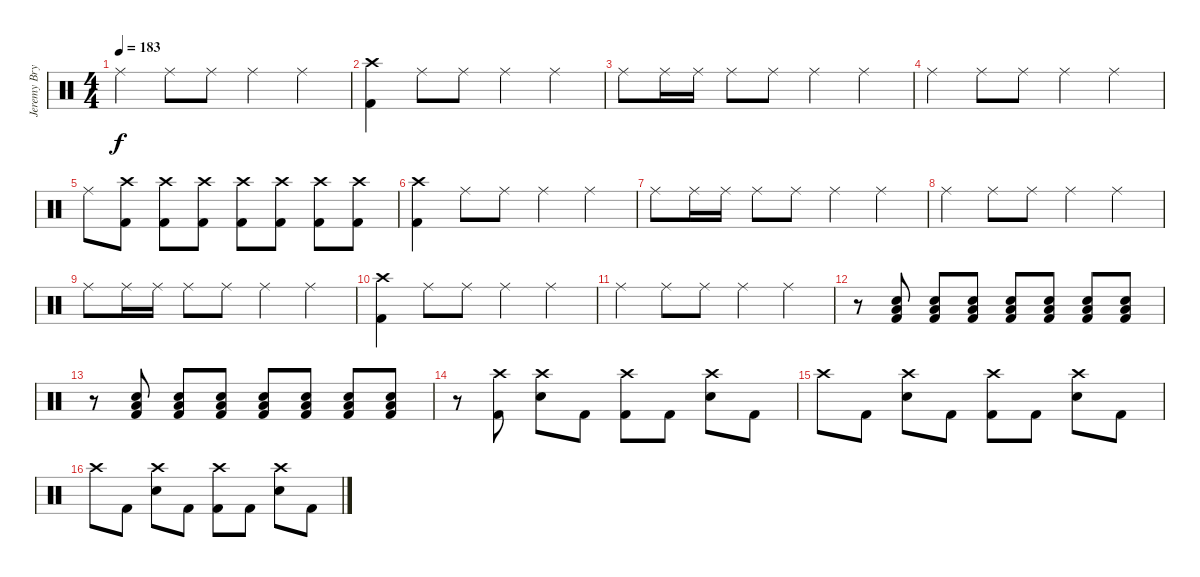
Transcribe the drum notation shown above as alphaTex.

\track ("Jeremy Bryan - Drums" "Jeremy Bry") {instrument percussion}
\staff {score}
\articulation defaults
\ts (4 4)
\tempo 183
\clef neutral
\ks c "Ride (middle)".4{dy f} "Ride (middle)".8 "Ride (middle)".8 "Ride (middle)".4 "Ride (middle)".4
|
("Crash high (hit)" "Kick (hit) 2").4 "Ride (middle)".8 "Ride (middle)".8 "Ride (middle)".4 "Ride (middle)".4 |
"Ride (middle)".8 "Ride (middle)".16 "Ride (middle)".16 "Ride (middle)".8 "Ride (middle)".8 "Ride (middle)".4 "Ride (middle)".4 |
"Ride (middle)".4 "Ride (middle)".8 "Ride (middle)".8 "Ride (middle)".4 "Ride (middle)".4 |
"Ride (middle)".8{volume 6} ("Crash high (hit)" "Kick (hit) 2").8{volume 13} ("Crash high (hit)" "Kick (hit) 2").8 ("Crash high (hit)" "Kick (hit) 2").8 ("Crash high (hit)" "Kick (hit) 2").8 ("Crash high (hit)" "Kick (hit) 2").8 ("Crash high (hit)" "Kick (hit) 2").8 ("Crash high (hit)" "Kick (hit) 2").8 |
("Crash high (hit)" "Kick (hit) 2").4 "Ride (middle)".8 "Ride (middle)".8 "Ride (middle)".4 "Ride (middle)".4 |
"Ride (middle)".8 "Ride (middle)".16 "Ride (middle)".16 "Ride (middle)".8 "Ride (middle)".8 "Ride (middle)".4 "Ride (middle)".4 |
"Ride (middle)".4 "Ride (middle)".8 "Ride (middle)".8 "Ride (middle)".4 "Ride (middle)".4 |
"Ride (middle)".8 "Ride (middle)".16 "Ride (middle)".16 "Ride (middle)".8 "Ride (middle)".8 "Ride (middle)".4 "Ride (middle)".4 |
("Crash high (hit)" "Kick (hit) 2").4 "Ride (middle)".8 "Ride (middle)".8 "Ride (middle)".4 "Ride (middle)".4 |
"Ride (middle)".4 "Ride (middle)".8 "Ride (middle)".8 "Ride (middle)".4 "Ride (middle)".4 |
r.8 ("Electric Snare (hit)" "Low Floor Tom (hit)" "Kick (hit) 2").8 ("Electric Snare (hit)" "Low Floor Tom (hit)" "Kick (hit) 2").8 ("Electric Snare (hit)" "Low Floor Tom (hit)" "Kick (hit) 2").8 ("Electric Snare (hit)" "Low Floor Tom (hit)" "Kick (hit) 2").8 ("Electric Snare (hit)" "Low Floor Tom (hit)" "Kick (hit) 2").8 ("Electric Snare (hit)" "Low Floor Tom (hit)" "Kick (hit) 2").8 ("Electric Snare (hit)" "Low Floor Tom (hit)" "Kick (hit) 2").8 |
r.8 ("Electric Snare (hit)" "Low Floor Tom (hit)" "Kick (hit) 2").8 ("Electric Snare (hit)" "Low Floor Tom (hit)" "Kick (hit) 2").8 ("Electric Snare (hit)" "Low Floor Tom (hit)" "Kick (hit) 2").8 ("Electric Snare (hit)" "Low Floor Tom (hit)" "Kick (hit) 2").8 ("Electric Snare (hit)" "Low Floor Tom (hit)" "Kick (hit) 2").8 ("Electric Snare (hit)" "Low Floor Tom (hit)" "Kick (hit) 2").8 ("Electric Snare (hit)" "Low Floor Tom (hit)" "Kick (hit) 2").8 |
r.8 ("Crash high (hit)" "Kick (hit) 2").8 ("Crash high (hit)" "Electric Snare (hit)").8 "Kick (hit) 2".8 ("Crash high (hit)" "Kick (hit) 2").8 "Kick (hit) 2".8 ("Crash high (hit)" "Electric Snare (hit)").8 "Kick (hit) 2".8 |
"Crash high (hit)".8 "Kick (hit) 2".8 ("Crash high (hit)" "Electric Snare (hit)").8 "Kick (hit) 2".8 ("Crash high (hit)" "Kick (hit) 2").8 "Kick (hit) 2".8 ("Crash high (hit)" "Electric Snare (hit)").8 "Kick (hit) 2".8 |
"Crash high (hit)".8 "Kick (hit) 2".8 ("Crash high (hit)" "Electric Snare (hit)").8 "Kick (hit) 2".8 ("Crash high (hit)" "Kick (hit) 2").8 "Kick (hit) 2".8 ("Crash high (hit)" "Electric Snare (hit)").8 "Kick (hit) 2".8
